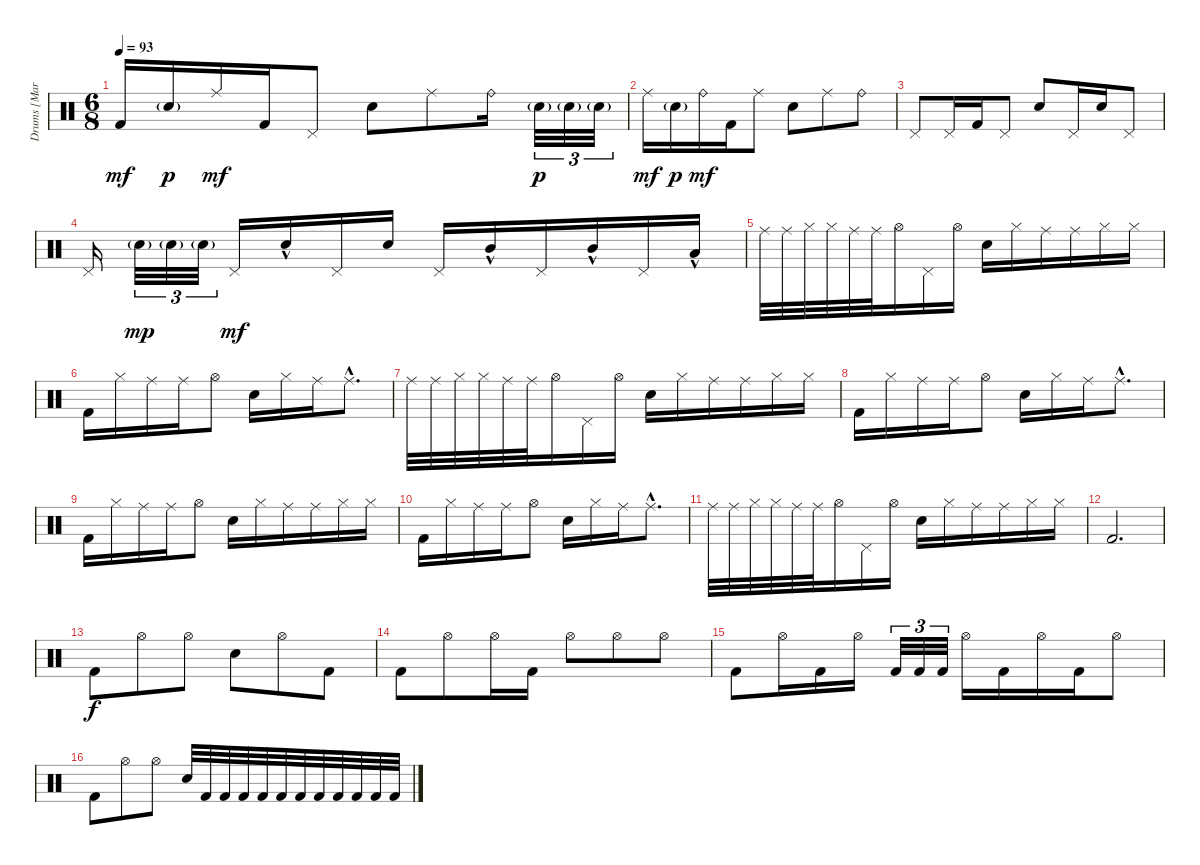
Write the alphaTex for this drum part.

\track ("Drums [Martin Lopez]" "Drums [Mar") {instrument percussion}
\staff {score}
\articulation defaults
\ts (6 8)
\tempo 93
\clef neutral
\ks c "Kick (hit) 2".16{dy mf} "Snare (hit) 2"{g}.16{dy p} "Ride (middle)".16{dy mf} "Kick (hit) 2".16 "Pedal Hi-Hat (hit)".8 "Snare (hit) 2".8 "Ride (middle)".8 "Ride (bell)".16 "Snare (hit) 2"{g}.32{tu (3 2) dy p} "Snare (hit) 2"{g}.32{tu (3 2)} "Snare (hit) 2"{g}.32{tu (3 2)}
|
"Ride (middle)".16{dy mf} "Snare (hit) 2"{g}.16{dy p} "Ride (bell)".16{dy mf} "Kick (hit) 2".16 "Ride (middle)".8 "Snare (hit) 2".8 "Ride (middle)".8 "Ride (bell)".8 |
"Pedal Hi-Hat (hit)".8 "Pedal Hi-Hat (hit)".16 "Kick (hit) 2".16 "Pedal Hi-Hat (hit)".8 "Snare (hit) 2".8 "Pedal Hi-Hat (hit)".16 "Snare (hit) 2".16 "Pedal Hi-Hat (hit)".8 |
"Pedal Hi-Hat (hit)".16 "Snare (hit) 2"{g}.32{tu (3 2) dy mp} "Snare (hit) 2"{g}.32{tu (3 2)} "Snare (hit) 2"{g}.32{tu (3 2)} "Pedal Hi-Hat (hit)".16{dy mf} "Snare (hit) 2"{hac}.16 "Pedal Hi-Hat (hit)".16 "Snare (hit) 2".16 "Pedal Hi-Hat (hit)".16 "Mid Tom (hit)"{hac}.16 "Pedal Hi-Hat (hit)".16 "Mid Tom (hit)"{hac}.16 "Pedal Hi-Hat (hit)".16 "Low Tom (hit)"{hac}.16 |
"Ride (middle)".32 "Ride (middle)".32 "Hi-Hat (closed)".32 "Hi-Hat (closed)".32 "Ride (middle)".32 "Ride (middle)".32 "Hi-Hat (open)".16 "Pedal Hi-Hat (hit)".16 "Hi-Hat (open)".16 "Snare (hit) 2".16 "Hi-Hat (closed)".16 "Ride (middle)".16 "Ride (middle)".16 "Hi-Hat (closed)".16 "Hi-Hat (closed)".16 |
"Kick (hit) 2".16 "Hi-Hat (closed)".16 "Ride (middle)".16 "Ride (middle)".16 "Hi-Hat (open)".8 "Snare (hit) 2".16 "Hi-Hat (closed)".16 "Ride (middle)".16 "Ride (middle)"{hac}.8{d} |
"Ride (middle)".32 "Ride (middle)".32 "Hi-Hat (closed)".32 "Hi-Hat (closed)".32 "Ride (middle)".32 "Ride (middle)".32 "Hi-Hat (open)".16 "Pedal Hi-Hat (hit)".16 "Hi-Hat (open)".16 "Snare (hit) 2".16 "Hi-Hat (closed)".16 "Ride (middle)".16 "Ride (middle)".16 "Hi-Hat (closed)".16 "Hi-Hat (closed)".16 |
"Kick (hit) 2".16 "Hi-Hat (closed)".16 "Ride (middle)".16 "Ride (middle)".16 "Hi-Hat (open)".8 "Snare (hit) 2".16 "Hi-Hat (closed)".16 "Ride (middle)".16 "Ride (middle)"{hac}.8{d} |
"Kick (hit) 2".16 "Hi-Hat (closed)".16 "Ride (middle)".16 "Ride (middle)".16 "Hi-Hat (open)".8 "Snare (hit) 2".16 "Hi-Hat (closed)".16 "Ride (middle)".16 "Ride (middle)".16 "Hi-Hat (closed)".16 "Hi-Hat (closed)".16 |
"Kick (hit) 2".16 "Hi-Hat (closed)".16 "Ride (middle)".16 "Ride (middle)".16 "Hi-Hat (open)".8 "Snare (hit) 2".16 "Hi-Hat (closed)".16 "Ride (middle)".16 "Ride (middle)"{hac}.8{d} |
"Ride (middle)".32 "Ride (middle)".32 "Hi-Hat (closed)".32 "Hi-Hat (closed)".32 "Ride (middle)".32 "Ride (middle)".32 "Hi-Hat (open)".16 "Pedal Hi-Hat (hit)".16 "Hi-Hat (open)".16 "Snare (hit) 2".16 "Hi-Hat (closed)".16 "Ride (middle)".16 "Ride (middle)".16 "Hi-Hat (closed)".16 "Hi-Hat (closed)".16 |
"Kick (hit) 2".2{d} |
"Kick (hit) 2".8{dy f} "Hi-Hat (open)".8 "Hi-Hat (open)".8 "Snare (hit) 2".8 "Hi-Hat (open)".8 "Kick (hit) 2".8 |
"Kick (hit) 2".8 "Hi-Hat (open)".8 "Hi-Hat (open)".16 "Kick (hit) 2".16 "Hi-Hat (open)".8 "Hi-Hat (open)".8 "Hi-Hat (open)".8 |
"Kick (hit) 2".8 "Hi-Hat (open)".16 "Kick (hit) 2".16 "Hi-Hat (open)".16 "Kick (hit) 2".32{tu (3 2)} "Kick (hit) 2".32{tu (3 2)} "Kick (hit) 2".32{tu (3 2)} "Hi-Hat (open)".16 "Kick (hit) 2".16 "Hi-Hat (open)".16 "Kick (hit) 2".16 "Hi-Hat (open)".8 |
"Kick (hit) 2".8 "Hi-Hat (open)".8 "Hi-Hat (open)".8 "Snare (hit) 2".32 "Kick (hit) 2".32 "Kick (hit) 2".32 "Kick (hit) 2".32 "Kick (hit) 2".32 "Kick (hit) 2".32 "Kick (hit) 2".32 "Kick (hit) 2".32 "Kick (hit) 2".32 "Kick (hit) 2".32 "Kick (hit) 2".32 "Kick (hit) 2".32
